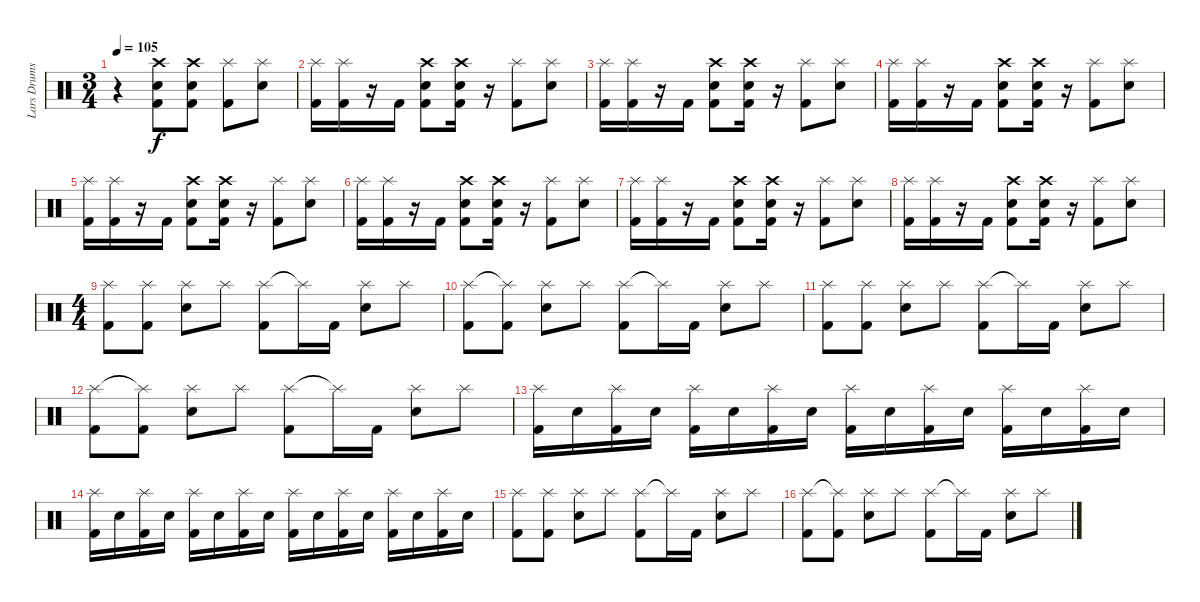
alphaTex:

\track ("Lars Drums" "Lars Drums") {instrument percussion}
\staff {score}
\articulation defaults
\ts (3 4)
\tempo 105
\clef neutral
\ks c
r.4{dy f} ("Crash high (hit)" "Snare (hit) 2" "Kick (hit) 2").8 ("Crash high (hit)" "Snare (hit) 2" "Kick (hit) 2").8 ("Splash (hit)" "Kick (hit) 2").8 ("Splash (hit)" "Snare (hit) 2").8 |
("Splash (hit)" "Kick (hit) 2").16 ("Splash (hit)" "Kick (hit) 2").16 r.16 "Kick (hit) 2".16 ("Crash high (hit)" "Snare (hit) 2" "Kick (hit) 2").8 ("Crash high (hit)" "Snare (hit) 2" "Kick (hit) 2").16 r.16 ("Splash (hit)" "Kick (hit) 2").8 ("Splash (hit)" "Snare (hit) 2").8 |
("Splash (hit)" "Kick (hit) 2").16 ("Splash (hit)" "Kick (hit) 2").16 r.16 "Kick (hit) 2".16 ("Crash high (hit)" "Snare (hit) 2" "Kick (hit) 2").8 ("Crash high (hit)" "Snare (hit) 2" "Kick (hit) 2").16 r.16 ("Splash (hit)" "Kick (hit) 2").8 ("Splash (hit)" "Snare (hit) 2").8 |
("Splash (hit)" "Kick (hit) 2").16 ("Splash (hit)" "Kick (hit) 2").16 r.16 "Kick (hit) 2".16 ("Crash high (hit)" "Snare (hit) 2" "Kick (hit) 2").8 ("Crash high (hit)" "Snare (hit) 2" "Kick (hit) 2").16 r.16 ("Splash (hit)" "Kick (hit) 2").8 ("Splash (hit)" "Snare (hit) 2").8 |
("Splash (hit)" "Kick (hit) 2").16 ("Splash (hit)" "Kick (hit) 2").16 r.16 "Kick (hit) 2".16 ("Crash high (hit)" "Snare (hit) 2" "Kick (hit) 2").8 ("Crash high (hit)" "Snare (hit) 2" "Kick (hit) 2").16 r.16 ("Splash (hit)" "Kick (hit) 2").8 ("Splash (hit)" "Snare (hit) 2").8 |
("Splash (hit)" "Kick (hit) 2").16 ("Splash (hit)" "Kick (hit) 2").16 r.16 "Kick (hit) 2".16 ("Crash high (hit)" "Snare (hit) 2" "Kick (hit) 2").8 ("Crash high (hit)" "Snare (hit) 2" "Kick (hit) 2").16 r.16 ("Splash (hit)" "Kick (hit) 2").8 ("Splash (hit)" "Snare (hit) 2").8 |
("Splash (hit)" "Kick (hit) 2").16 ("Splash (hit)" "Kick (hit) 2").16 r.16 "Kick (hit) 2".16 ("Crash high (hit)" "Snare (hit) 2" "Kick (hit) 2").8 ("Crash high (hit)" "Snare (hit) 2" "Kick (hit) 2").16 r.16 ("Splash (hit)" "Kick (hit) 2").8 ("Splash (hit)" "Snare (hit) 2").8 |
("Splash (hit)" "Kick (hit) 2").16 ("Splash (hit)" "Kick (hit) 2").16 r.16 "Kick (hit) 2".16 ("Crash high (hit)" "Snare (hit) 2" "Kick (hit) 2").8 ("Crash high (hit)" "Snare (hit) 2" "Kick (hit) 2").16 r.16 ("Splash (hit)" "Kick (hit) 2").8 ("Splash (hit)" "Snare (hit) 2").8 |
\ts (4 4)
("Splash (hit)" "Kick (hit) 2").8 ("Splash (hit)" "Kick (hit) 2").8 ("Splash (hit)" "Snare (hit) 2").8 "Splash (hit)".8 ("Splash (hit)" "Kick (hit) 2").8 "Splash (hit)"{t}.16 "Kick (hit) 2".16 ("Splash (hit)" "Snare (hit) 2").8 "Splash (hit)".8 |
("Splash (hit)" "Kick (hit) 2").8 ("Splash (hit)"{t} "Kick (hit) 2").8 ("Splash (hit)" "Snare (hit) 2").8 "Splash (hit)".8 ("Splash (hit)" "Kick (hit) 2").8 "Splash (hit)"{t}.16 "Kick (hit) 2".16 ("Splash (hit)" "Snare (hit) 2").8 "Splash (hit)".8 |
("Splash (hit)" "Kick (hit) 2").8 ("Splash (hit)" "Kick (hit) 2").8 ("Splash (hit)" "Snare (hit) 2").8 "Splash (hit)".8 ("Splash (hit)" "Kick (hit) 2").8 "Splash (hit)"{t}.16 "Kick (hit) 2".16 ("Splash (hit)" "Snare (hit) 2").8 "Splash (hit)".8 |
("Splash (hit)" "Kick (hit) 2").8 ("Splash (hit)"{t} "Kick (hit) 2").8 ("Splash (hit)" "Snare (hit) 2").8 "Splash (hit)".8 ("Splash (hit)" "Kick (hit) 2").8 "Splash (hit)"{t}.16 "Kick (hit) 2".16 ("Splash (hit)" "Snare (hit) 2").8 "Splash (hit)".8 |
("Splash (hit)" "Kick (hit) 2").16 "Snare (hit) 2".16 ("Splash (hit)" "Kick (hit) 2").16 "Snare (hit) 2".16 ("Splash (hit)" "Kick (hit) 2").16 "Snare (hit) 2".16 ("Splash (hit)" "Kick (hit) 2").16 "Snare (hit) 2".16 ("Splash (hit)" "Kick (hit) 2").16 "Snare (hit) 2".16 ("Splash (hit)" "Kick (hit) 2").16 "Snare (hit) 2".16 ("Splash (hit)" "Kick (hit) 2").16 "Snare (hit) 2".16 ("Splash (hit)" "Kick (hit) 2").16 "Snare (hit) 2".16 |
("Splash (hit)" "Kick (hit) 2").16 "Snare (hit) 2".16 ("Splash (hit)" "Kick (hit) 2").16 "Snare (hit) 2".16 ("Splash (hit)" "Kick (hit) 2").16 "Snare (hit) 2".16 ("Splash (hit)" "Kick (hit) 2").16 "Snare (hit) 2".16 ("Splash (hit)" "Kick (hit) 2").16 "Snare (hit) 2".16 ("Splash (hit)" "Kick (hit) 2").16 "Snare (hit) 2".16 ("Splash (hit)" "Kick (hit) 2").16 "Snare (hit) 2".16 ("Splash (hit)" "Kick (hit) 2").16 "Snare (hit) 2".16 |
("Splash (hit)" "Kick (hit) 2").8 ("Splash (hit)" "Kick (hit) 2").8 ("Splash (hit)" "Snare (hit) 2").8 "Splash (hit)".8 ("Splash (hit)" "Kick (hit) 2").8 "Splash (hit)"{t}.16 "Kick (hit) 2".16 ("Splash (hit)" "Snare (hit) 2").8 "Splash (hit)".8 |
("Splash (hit)" "Kick (hit) 2").8 ("Splash (hit)"{t} "Kick (hit) 2").8 ("Splash (hit)" "Snare (hit) 2").8 "Splash (hit)".8 ("Splash (hit)" "Kick (hit) 2").8 "Splash (hit)"{t}.16 "Kick (hit) 2".16 ("Splash (hit)" "Snare (hit) 2").8 "Splash (hit)".8
